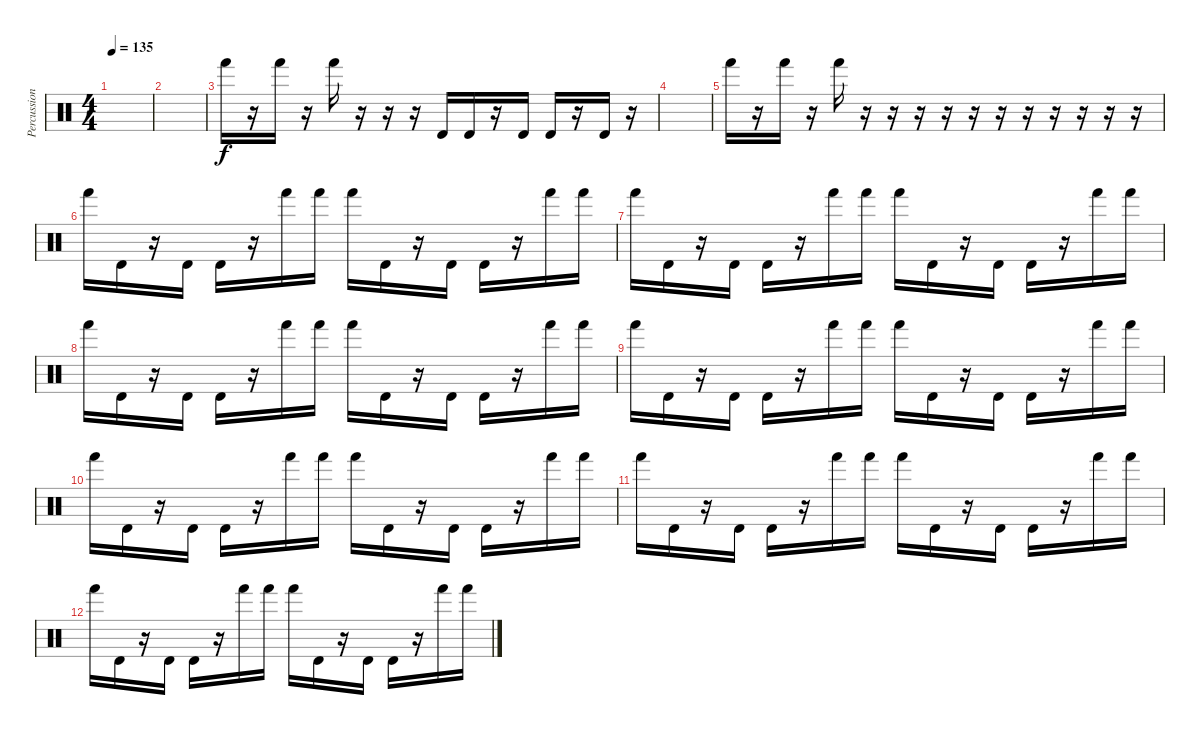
\track ("Percussion" "Percussion") {instrument percussion}
\staff {score}
\articulation defaults
\ts (4 4)
\tempo 135
\clef neutral
\ks c
|
|
"Hand (hit)".16 r.16 "Hand (hit)".16 r.16 "Hand (hit)".16 r.16 r.16 r.16 "Timbale high (hit)".16 "Timbale high (hit)".16 r.16 "Timbale high (hit)".16 "Timbale high (hit)".16 r.16 "Timbale high (hit)".16 r.16 |
|
"Hand (hit)".16 r.16 "Hand (hit)".16 r.16 "Hand (hit)".16 r.16 r.16 r.16 r.16 r.16 r.16 r.16 r.16 r.16 r.16 r.16 |
"Hand (hit)".16{volume 12} "Timbale high (hit)".16 r.16 "Timbale high (hit)".16 "Timbale high (hit)".16 r.16 "Hand (hit)".16 "Hand (hit)".16 "Hand (hit)".16 "Timbale high (hit)".16 r.16 "Timbale high (hit)".16 "Timbale high (hit)".16 r.16 "Hand (hit)".16 "Hand (hit)".16 |
"Hand (hit)".16 "Timbale high (hit)".16 r.16 "Timbale high (hit)".16 "Timbale high (hit)".16 r.16 "Hand (hit)".16 "Hand (hit)".16 "Hand (hit)".16 "Timbale high (hit)".16 r.16 "Timbale high (hit)".16 "Timbale high (hit)".16 r.16 "Hand (hit)".16 "Hand (hit)".16 |
"Hand (hit)".16 "Timbale high (hit)".16 r.16 "Timbale high (hit)".16 "Timbale high (hit)".16 r.16 "Hand (hit)".16 "Hand (hit)".16 "Hand (hit)".16 "Timbale high (hit)".16 r.16 "Timbale high (hit)".16 "Timbale high (hit)".16 r.16 "Hand (hit)".16 "Hand (hit)".16 |
"Hand (hit)".16 "Timbale high (hit)".16 r.16 "Timbale high (hit)".16 "Timbale high (hit)".16 r.16 "Hand (hit)".16 "Hand (hit)".16 "Hand (hit)".16 "Timbale high (hit)".16 r.16 "Timbale high (hit)".16 "Timbale high (hit)".16 r.16 "Hand (hit)".16 "Hand (hit)".16 |
"Hand (hit)".16 "Timbale high (hit)".16 r.16 "Timbale high (hit)".16 "Timbale high (hit)".16 r.16 "Hand (hit)".16 "Hand (hit)".16 "Hand (hit)".16 "Timbale high (hit)".16 r.16 "Timbale high (hit)".16 "Timbale high (hit)".16 r.16 "Hand (hit)".16 "Hand (hit)".16 |
"Hand (hit)".16 "Timbale high (hit)".16 r.16 "Timbale high (hit)".16 "Timbale high (hit)".16 r.16 "Hand (hit)".16 "Hand (hit)".16 "Hand (hit)".16 "Timbale high (hit)".16 r.16 "Timbale high (hit)".16 "Timbale high (hit)".16 r.16 "Hand (hit)".16 "Hand (hit)".16 |
"Hand (hit)".16 "Timbale high (hit)".16 r.16 "Timbale high (hit)".16 "Timbale high (hit)".16 r.16 "Hand (hit)".16 "Hand (hit)".16 "Hand (hit)".16 "Timbale high (hit)".16 r.16 "Timbale high (hit)".16 "Timbale high (hit)".16 r.16 "Hand (hit)".16 "Hand (hit)".16
